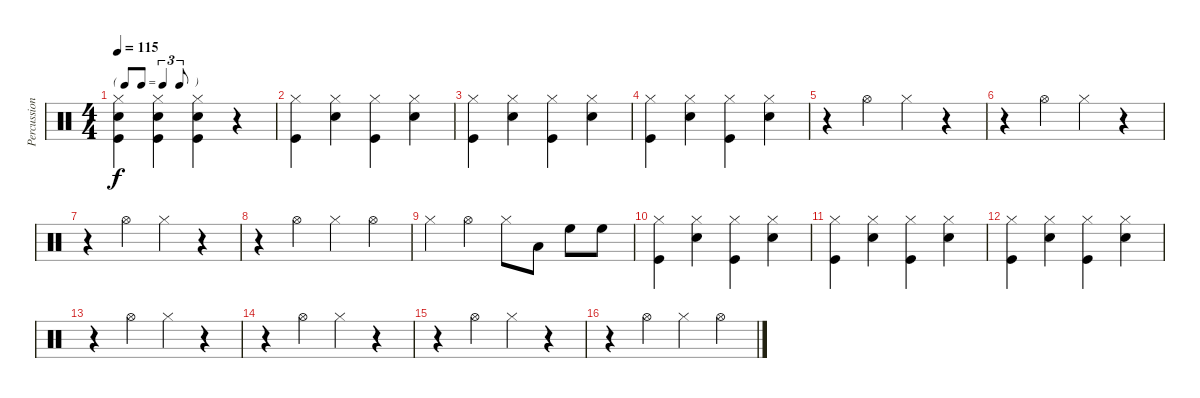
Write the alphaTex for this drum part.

\track ("Percussion" "Percussion") {instrument percussion}
\staff {score}
\articulation defaults
\ts (4 4)
\tf triplet8th
\tempo 115
\clef neutral
\ks c
("Hi-Hat (closed)" "Snare (hit) 2" "Kick (hit)").4{dy f} ("Hi-Hat (closed)" "Snare (hit) 2" "Kick (hit)").4 ("Hi-Hat (closed)" "Snare (hit) 2" "Kick (hit)").4 r.4 |
("Hi-Hat (closed)" "Kick (hit)").4 ("Hi-Hat (closed)" "Snare (hit) 2").4 ("Hi-Hat (closed)" "Kick (hit)").4 ("Hi-Hat (closed)" "Snare (hit) 2").4 |
("Hi-Hat (closed)" "Kick (hit)").4 ("Hi-Hat (closed)" "Snare (hit) 2").4 ("Hi-Hat (closed)" "Kick (hit)").4 ("Hi-Hat (closed)" "Snare (hit) 2").4 |
("Hi-Hat (closed)" "Kick (hit)").4 ("Hi-Hat (closed)" "Snare (hit) 2").4 ("Hi-Hat (closed)" "Kick (hit)").4 ("Hi-Hat (closed)" "Snare (hit) 2").4 |
r.4 "Hi-Hat (open)".4 "Hi-Hat (closed)".4 r.4 |
r.4 "Hi-Hat (open)".4 "Hi-Hat (closed)".4 r.4 |
r.4 "Hi-Hat (open)".4 "Hi-Hat (closed)".4 r.4 |
r.4 "Hi-Hat (open)".4 "Hi-Hat (closed)".4 "Hi-Hat (open)".4 |
"Hi-Hat (closed)".4 "Hi-Hat (open)".4 "Hi-Hat (closed)".8 "Low Tom (hit)".8 "High Floor Tom (hit)".8 "High Floor Tom (hit)".8 |
("Hi-Hat (closed)" "Kick (hit)").4 ("Hi-Hat (closed)" "Snare (hit) 2").4 ("Hi-Hat (closed)" "Kick (hit)").4 ("Hi-Hat (closed)" "Snare (hit) 2").4 |
("Hi-Hat (closed)" "Kick (hit)").4 ("Hi-Hat (closed)" "Snare (hit) 2").4 ("Hi-Hat (closed)" "Kick (hit)").4 ("Hi-Hat (closed)" "Snare (hit) 2").4 |
("Hi-Hat (closed)" "Kick (hit)").4 ("Hi-Hat (closed)" "Snare (hit) 2").4 ("Hi-Hat (closed)" "Kick (hit)").4 ("Hi-Hat (closed)" "Snare (hit) 2").4 |
r.4 "Hi-Hat (open)".4 "Hi-Hat (closed)".4 r.4 |
r.4 "Hi-Hat (open)".4 "Hi-Hat (closed)".4 r.4 |
r.4 "Hi-Hat (open)".4 "Hi-Hat (closed)".4 r.4 |
r.4 "Hi-Hat (open)".4 "Hi-Hat (closed)".4 "Hi-Hat (open)".4
